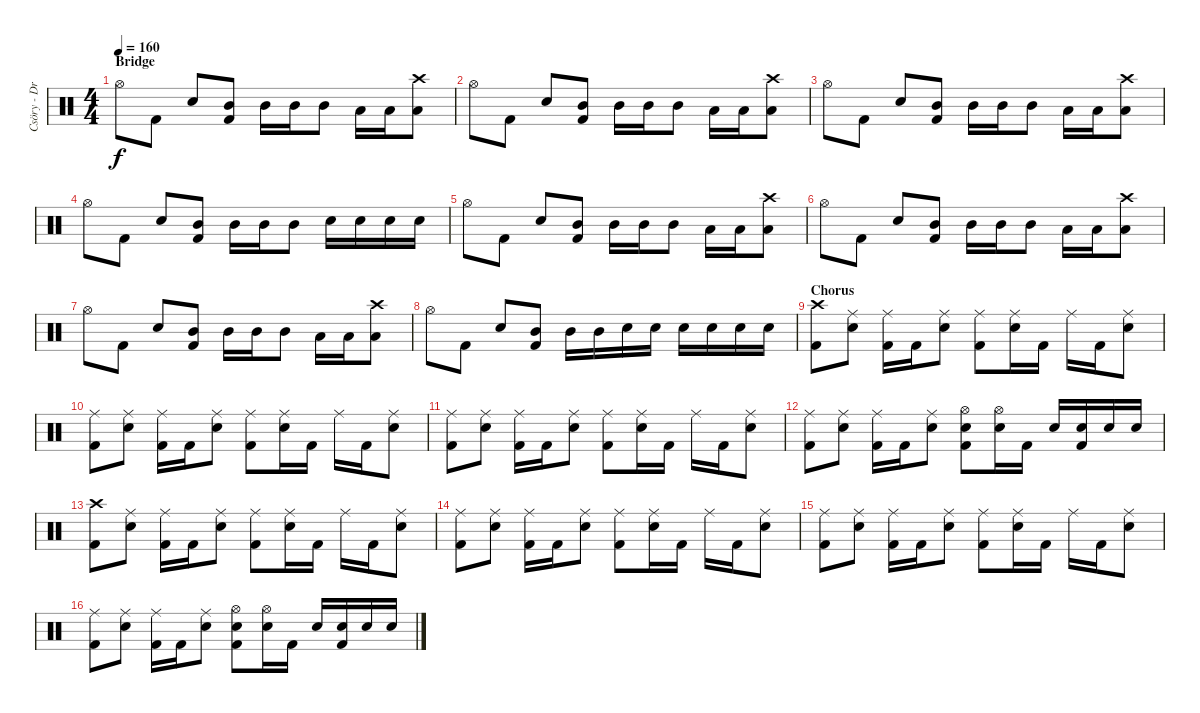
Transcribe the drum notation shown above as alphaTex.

\track ("Csöry - DrumZ" "Csöry - Dr") {instrument percussion}
\staff {score}
\articulation defaults
\ts (4 4)
\section ("" "Bridge")
\tempo 160
\clef neutral
\ks c "Hi-Hat (open)".8{dy f} "Kick (hit) 2".8 "Snare (hit) 2".8
("Mid Tom (hit)" "Kick (hit) 2").8 "Mid Tom (hit)".16 "Mid Tom (hit)".16 "Mid Tom (hit)".8 "Low Tom (hit)".16 "Low Tom (hit)".16 ("Crash high (hit)" "Low Floor Tom (hit)").8 |
"Hi-Hat (open)".8 "Kick (hit) 2".8 "Snare (hit) 2".8 ("Mid Tom (hit)" "Kick (hit) 2").8 "Mid Tom (hit)".16 "Mid Tom (hit)".16 "Mid Tom (hit)".8 "Low Tom (hit)".16 "Low Tom (hit)".16 ("Crash high (hit)" "Low Floor Tom (hit)").8 |
"Hi-Hat (open)".8 "Kick (hit) 2".8 "Snare (hit) 2".8 ("Mid Tom (hit)" "Kick (hit) 2").8 "Mid Tom (hit)".16 "Mid Tom (hit)".16 "Mid Tom (hit)".8 "Low Tom (hit)".16 "Low Tom (hit)".16 ("Crash high (hit)" "Low Floor Tom (hit)").8 |
"Hi-Hat (open)".8 "Kick (hit) 2".8 "Snare (hit) 2".8 ("Mid Tom (hit)" "Kick (hit) 2").8 "Mid Tom (hit)".16 "Mid Tom (hit)".16 "Mid Tom (hit)".8 "Snare (hit) 2".16 "Snare (hit) 2".16 "Snare (hit) 2".16 "Snare (hit) 2".16 |
"Hi-Hat (open)".8 "Kick (hit) 2".8 "Snare (hit) 2".8 ("Mid Tom (hit)" "Kick (hit) 2").8 "Mid Tom (hit)".16 "Mid Tom (hit)".16 "Mid Tom (hit)".8 "Low Tom (hit)".16 "Low Tom (hit)".16 ("Crash high (hit)" "Low Floor Tom (hit)").8 |
"Hi-Hat (open)".8 "Kick (hit) 2".8 "Snare (hit) 2".8 ("Mid Tom (hit)" "Kick (hit) 2").8 "Mid Tom (hit)".16 "Mid Tom (hit)".16 "Mid Tom (hit)".8 "Low Tom (hit)".16 "Low Tom (hit)".16 ("Crash high (hit)" "Low Floor Tom (hit)").8 |
"Hi-Hat (open)".8 "Kick (hit) 2".8 "Snare (hit) 2".8 ("Mid Tom (hit)" "Kick (hit) 2").8 "Mid Tom (hit)".16 "Mid Tom (hit)".16 "Mid Tom (hit)".8 "Low Tom (hit)".16 "Low Tom (hit)".16 ("Crash high (hit)" "Low Floor Tom (hit)").8 |
"Hi-Hat (open)".8 "Kick (hit) 2".8 "Snare (hit) 2".8 ("Mid Tom (hit)" "Kick (hit) 2").8 "Mid Tom (hit)".16 "Mid Tom (hit)".16 "Snare (hit) 2".16 "Snare (hit) 2".16 "Snare (hit) 2".16 "Snare (hit) 2".16 "Snare (hit) 2".16 "Snare (hit) 2".16 |
\section ("" "Chorus")
("Crash high (hit)" "Kick (hit) 2").8 ("Ride (middle)" "Snare (hit) 2").8 ("Ride (middle)" "Kick (hit) 2").16 "Kick (hit) 2".16 ("Ride (middle)" "Snare (hit) 2").8 ("Ride (middle)" "Kick (hit) 2").8 ("Ride (middle)" "Snare (hit) 2").16 "Kick (hit) 2".16 "Ride (middle)".16 "Kick (hit) 2".16 ("Ride (middle)" "Snare (hit) 2").8 |
("Ride (middle)" "Kick (hit) 2").8 ("Ride (middle)" "Snare (hit) 2").8 ("Ride (middle)" "Kick (hit) 2").16 "Kick (hit) 2".16 ("Ride (middle)" "Snare (hit) 2").8 ("Ride (middle)" "Kick (hit) 2").8 ("Ride (middle)" "Snare (hit) 2").16 "Kick (hit) 2".16 "Ride (middle)".16 "Kick (hit) 2".16 ("Ride (middle)" "Snare (hit) 2").8 |
("Ride (middle)" "Kick (hit) 2").8 ("Ride (middle)" "Snare (hit) 2").8 ("Ride (middle)" "Kick (hit) 2").16 "Kick (hit) 2".16 ("Ride (middle)" "Snare (hit) 2").8 ("Ride (middle)" "Kick (hit) 2").8 ("Ride (middle)" "Snare (hit) 2").16 "Kick (hit) 2".16 "Ride (middle)".16 "Kick (hit) 2".16 ("Ride (middle)" "Snare (hit) 2").8 |
("Ride (middle)" "Kick (hit) 2").8 ("Ride (middle)" "Snare (hit) 2").8 ("Ride (middle)" "Kick (hit) 2").16 "Kick (hit) 2".16 ("Ride (middle)" "Snare (hit) 2").8 ("Hi-Hat (open)" "Snare (hit) 2" "Kick (hit) 2").8 ("Hi-Hat (open)" "Snare (hit) 2").16 "Kick (hit) 2".16 "Snare (hit) 2".16 ("Snare (hit) 2" "Kick (hit) 2").16 "Snare (hit) 2".16 "Snare (hit) 2".16 |
("Crash high (hit)" "Kick (hit) 2").8 ("Ride (middle)" "Snare (hit) 2").8 ("Ride (middle)" "Kick (hit) 2").16 "Kick (hit) 2".16 ("Ride (middle)" "Snare (hit) 2").8 ("Ride (middle)" "Kick (hit) 2").8 ("Ride (middle)" "Snare (hit) 2").16 "Kick (hit) 2".16 "Ride (middle)".16 "Kick (hit) 2".16 ("Ride (middle)" "Snare (hit) 2").8 |
("Ride (middle)" "Kick (hit) 2").8 ("Ride (middle)" "Snare (hit) 2").8 ("Ride (middle)" "Kick (hit) 2").16 "Kick (hit) 2".16 ("Ride (middle)" "Snare (hit) 2").8 ("Ride (middle)" "Kick (hit) 2").8 ("Ride (middle)" "Snare (hit) 2").16 "Kick (hit) 2".16 "Ride (middle)".16 "Kick (hit) 2".16 ("Ride (middle)" "Snare (hit) 2").8 |
("Ride (middle)" "Kick (hit) 2").8 ("Ride (middle)" "Snare (hit) 2").8 ("Ride (middle)" "Kick (hit) 2").16 "Kick (hit) 2".16 ("Ride (middle)" "Snare (hit) 2").8 ("Ride (middle)" "Kick (hit) 2").8 ("Ride (middle)" "Snare (hit) 2").16 "Kick (hit) 2".16 "Ride (middle)".16 "Kick (hit) 2".16 ("Ride (middle)" "Snare (hit) 2").8 |
("Ride (middle)" "Kick (hit) 2").8 ("Ride (middle)" "Snare (hit) 2").8 ("Ride (middle)" "Kick (hit) 2").16 "Kick (hit) 2".16 ("Ride (middle)" "Snare (hit) 2").8 ("Hi-Hat (open)" "Snare (hit) 2" "Kick (hit) 2").8 ("Hi-Hat (open)" "Snare (hit) 2").16 "Kick (hit) 2".16 "Snare (hit) 2".16 ("Snare (hit) 2" "Kick (hit) 2").16 "Snare (hit) 2".16 "Snare (hit) 2".16
